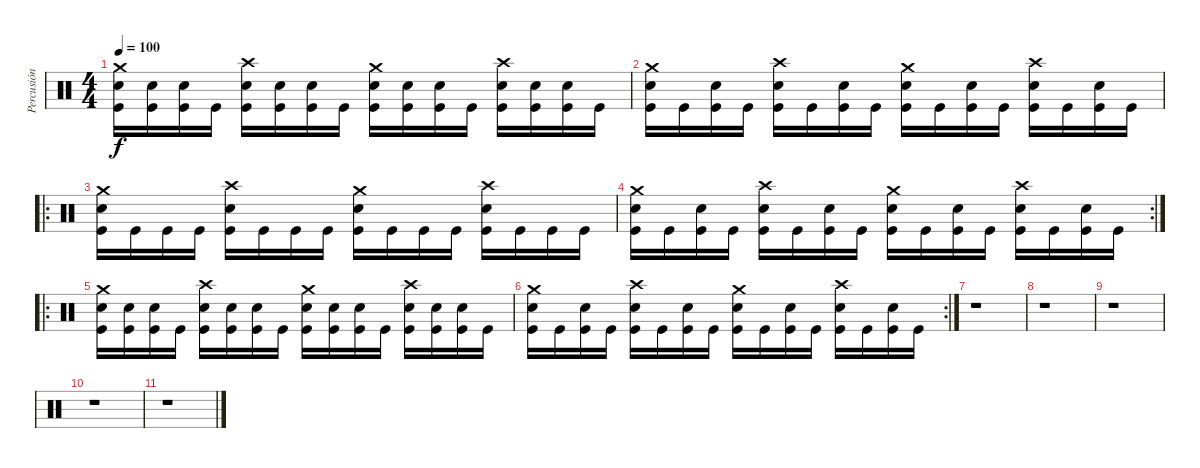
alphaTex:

\track ("Percusión" "Percusión") {instrument percussion}
\staff {score}
\articulation defaults
\ts (4 4)
\tempo 100
\clef neutral
\ks c
("Crash medium (hit)" "Electric Snare (hit)" "Kick (hit)").16{dy f} ("Electric Snare (hit)" "Kick (hit)").16 ("Electric Snare (hit)" "Kick (hit)").16 "Kick (hit)".16 ("Crash high (hit)" "Electric Snare (hit)" "Kick (hit)").16 ("Electric Snare (hit)" "Kick (hit)").16 ("Electric Snare (hit)" "Kick (hit)").16 "Kick (hit)".16 ("Crash medium (hit)" "Electric Snare (hit)" "Kick (hit)").16 ("Electric Snare (hit)" "Kick (hit)").16 ("Electric Snare (hit)" "Kick (hit)").16 "Kick (hit)".16 ("Crash high (hit)" "Electric Snare (hit)" "Kick (hit)").16 ("Electric Snare (hit)" "Kick (hit)").16 ("Electric Snare (hit)" "Kick (hit)").16 "Kick (hit)".16 |
("Crash medium (hit)" "Electric Snare (hit)" "Kick (hit)").16 "Kick (hit)".16 ("Electric Snare (hit)" "Kick (hit)").16 "Kick (hit)".16 ("Crash high (hit)" "Electric Snare (hit)" "Kick (hit)").16 "Kick (hit)".16 ("Electric Snare (hit)" "Kick (hit)").16 "Kick (hit)".16 ("Crash medium (hit)" "Electric Snare (hit)" "Kick (hit)").16 "Kick (hit)".16 ("Electric Snare (hit)" "Kick (hit)").16 "Kick (hit)".16 ("Crash high (hit)" "Electric Snare (hit)" "Kick (hit)").16 "Kick (hit)".16 ("Electric Snare (hit)" "Kick (hit)").16 "Kick (hit)".16 |
\ro
("Crash medium (hit)" "Electric Snare (hit)" "Kick (hit)").16 "Kick (hit)".16 "Kick (hit)".16 "Kick (hit)".16 ("Crash high (hit)" "Electric Snare (hit)" "Kick (hit)").16 "Kick (hit)".16 "Kick (hit)".16 "Kick (hit)".16 ("Crash medium (hit)" "Electric Snare (hit)" "Kick (hit)").16 "Kick (hit)".16 "Kick (hit)".16 "Kick (hit)".16 ("Crash high (hit)" "Electric Snare (hit)" "Kick (hit)").16 "Kick (hit)".16 "Kick (hit)".16 "Kick (hit)".16 |
\rc 2
("Crash medium (hit)" "Electric Snare (hit)" "Kick (hit)").16 "Kick (hit)".16 ("Electric Snare (hit)" "Kick (hit)").16 "Kick (hit)".16 ("Crash high (hit)" "Electric Snare (hit)" "Kick (hit)").16 "Kick (hit)".16 ("Electric Snare (hit)" "Kick (hit)").16 "Kick (hit)".16 ("Crash medium (hit)" "Electric Snare (hit)" "Kick (hit)").16 "Kick (hit)".16 ("Electric Snare (hit)" "Kick (hit)").16 "Kick (hit)".16 ("Crash high (hit)" "Electric Snare (hit)" "Kick (hit)").16 "Kick (hit)".16 ("Electric Snare (hit)" "Kick (hit)").16 "Kick (hit)".16 |
\ro
("Crash medium (hit)" "Electric Snare (hit)" "Kick (hit)").16 ("Electric Snare (hit)" "Kick (hit)").16 ("Electric Snare (hit)" "Kick (hit)").16 "Kick (hit)".16 ("Crash high (hit)" "Electric Snare (hit)" "Kick (hit)").16 ("Electric Snare (hit)" "Kick (hit)").16 ("Electric Snare (hit)" "Kick (hit)").16 "Kick (hit)".16 ("Crash medium (hit)" "Electric Snare (hit)" "Kick (hit)").16 ("Electric Snare (hit)" "Kick (hit)").16 ("Electric Snare (hit)" "Kick (hit)").16 "Kick (hit)".16 ("Crash high (hit)" "Electric Snare (hit)" "Kick (hit)").16 ("Electric Snare (hit)" "Kick (hit)").16 ("Electric Snare (hit)" "Kick (hit)").16 "Kick (hit)".16 |
\rc 2
("Crash medium (hit)" "Electric Snare (hit)" "Kick (hit)").16 "Kick (hit)".16 ("Electric Snare (hit)" "Kick (hit)").16 "Kick (hit)".16 ("Crash high (hit)" "Electric Snare (hit)" "Kick (hit)").16 "Kick (hit)".16 ("Electric Snare (hit)" "Kick (hit)").16 "Kick (hit)".16 ("Crash medium (hit)" "Electric Snare (hit)" "Kick (hit)").16 "Kick (hit)".16 ("Electric Snare (hit)" "Kick (hit)").16 "Kick (hit)".16 ("Crash high (hit)" "Electric Snare (hit)" "Kick (hit)").16 "Kick (hit)".16 ("Electric Snare (hit)" "Kick (hit)").16 "Kick (hit)".16 |
r.1 |
r.1 |
r.1 |
r.1 |
r.1
